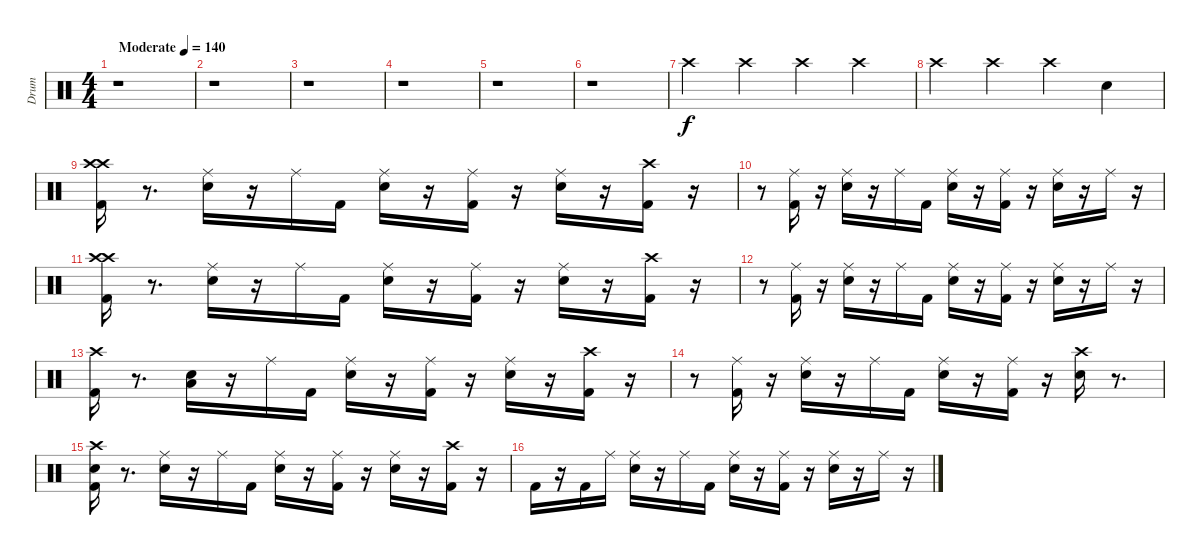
\track ("Drum" "Drum") {instrument percussion}
\staff {score}
\articulation defaults
\ts (4 4)
\tempo (140 "Moderate")
\clef neutral
\ks c
r.1{dy f} |
r.1 |
r.1 |
r.1 |
r.1 |
r.1 |
"Crash high (hit)".4 "Crash high (hit)".4 "Crash high (hit)".4 "Crash high (hit)".4 |
"Crash high (hit)".4 "Crash high (hit)".4 "Crash high (hit)".4 "Electric Snare (hit)".4 |
("Crash high (hit)" "Kick (hit) 2" "Crash high (hit)").16 r.8{d} ("Electric Snare (hit)" "Ride (middle)").16 r.16 "Ride (middle)".16 "Kick (hit) 2".16 ("Electric Snare (hit)" "Ride (middle)").16 r.16 ("Kick (hit) 2" "Ride (middle)").16 r.16 ("Electric Snare (hit)" "Ride (middle)").16 r.16 ("Kick (hit) 2" "Crash high (hit)").16 r.16 |
r.8 ("Kick (hit) 2" "Ride (middle)").16 r.16 ("Electric Snare (hit)" "Ride (middle)").16 r.16 "Ride (middle)".16 "Kick (hit) 2".16 ("Electric Snare (hit)" "Ride (middle)").16 r.16 ("Kick (hit) 2" "Ride (middle)").16 r.16 ("Electric Snare (hit)" "Ride (middle)").16 r.16 "Ride (middle)".16 r.16 |
("Crash high (hit)" "Kick (hit) 2" "Crash high (hit)").16 r.8{d} ("Electric Snare (hit)" "Ride (middle)").16 r.16 "Ride (middle)".16 "Kick (hit) 2".16 ("Electric Snare (hit)" "Ride (middle)").16 r.16 ("Kick (hit) 2" "Ride (middle)").16 r.16 ("Electric Snare (hit)" "Ride (middle)").16 r.16 ("Kick (hit) 2" "Crash high (hit)").16 r.16 |
r.8 ("Kick (hit) 2" "Ride (middle)").16 r.16 ("Electric Snare (hit)" "Ride (middle)").16 r.16 "Ride (middle)".16 "Kick (hit) 2".16 ("Electric Snare (hit)" "Ride (middle)").16 r.16 ("Kick (hit) 2" "Ride (middle)").16 r.16 ("Electric Snare (hit)" "Ride (middle)").16 r.16 "Ride (middle)".16 r.16 |
("Kick (hit) 2" "Crash high (hit)").16 r.8{d} ("Low Floor Tom (hit)" "Electric Snare (hit)").16 r.16 "Ride (middle)".16 "Kick (hit) 2".16 ("Electric Snare (hit)" "Ride (middle)").16 r.16 ("Kick (hit) 2" "Ride (middle)").16 r.16 ("Electric Snare (hit)" "Ride (middle)").16 r.16 ("Kick (hit) 2" "Crash high (hit)").16 r.16 |
r.8 ("Kick (hit) 2" "Ride (middle)").16 r.16 ("Electric Snare (hit)" "Ride (middle)").16 r.16 "Ride (middle)".16 "Kick (hit) 2".16 ("Electric Snare (hit)" "Ride (middle)").16 r.16 ("Kick (hit) 2" "Ride (middle)").16 r.16 ("Electric Snare (hit)" "Crash high (hit)").16 r.8{d} |
("Kick (hit) 2" "Electric Snare (hit)" "Crash high (hit)").16 r.8{d} ("Electric Snare (hit)" "Ride (middle)").16 r.16 "Ride (middle)".16 "Kick (hit) 2".16 ("Electric Snare (hit)" "Ride (middle)").16 r.16 ("Kick (hit) 2" "Ride (middle)").16 r.16 ("Electric Snare (hit)" "Ride (middle)").16 r.16 ("Kick (hit) 2" "Crash high (hit)").16 r.16 |
"Kick (hit) 2".16 r.16 "Kick (hit) 2".16 "Ride (middle)".16 ("Electric Snare (hit)" "Ride (middle)").16 r.16 "Ride (middle)".16 "Kick (hit) 2".16 ("Electric Snare (hit)" "Ride (middle)").16 r.16 ("Kick (hit) 2" "Ride (middle)").16 r.16 ("Electric Snare (hit)" "Ride (middle)").16 r.16 "Ride (middle)".16 r.16
